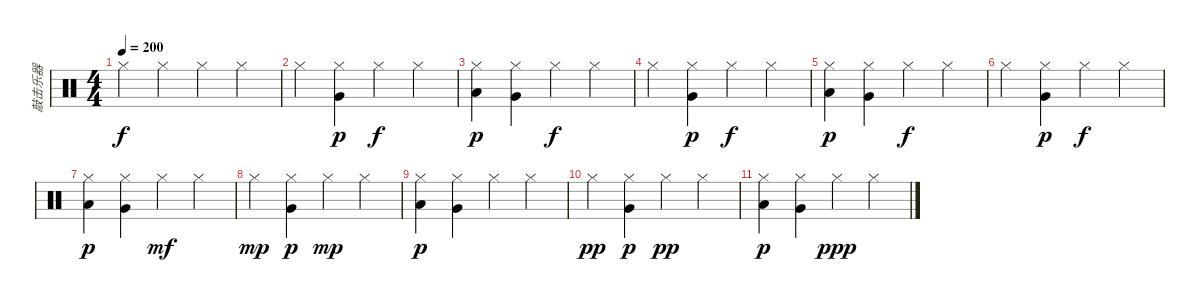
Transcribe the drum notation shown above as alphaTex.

\track ("敲击乐器" "敲击乐器") {instrument percussion}
\staff {score}
\articulation defaults
\ts (4 4)
\tempo 200
\clef neutral
\ks c "Hi-Hat (closed)".4{dy f} "Hi-Hat (closed)".4 "Hi-Hat (closed)".4 "Hi-Hat (closed)".4
|
"Hi-Hat (closed)".4 ("Hi-Hat (closed)" "Very Low Tom (hit)").4{dy p} "Hi-Hat (closed)".4{dy f} "Hi-Hat (closed)".4 |
("Hi-Hat (closed)" "Low Tom (hit)").4{dy p} ("Hi-Hat (closed)" "Very Low Tom (hit)").4 "Hi-Hat (closed)".4{dy f} "Hi-Hat (closed)".4 |
"Hi-Hat (closed)".4 ("Hi-Hat (closed)" "Very Low Tom (hit)").4{dy p} "Hi-Hat (closed)".4{dy f} "Hi-Hat (closed)".4 |
("Hi-Hat (closed)" "Low Tom (hit)").4{dy p} ("Hi-Hat (closed)" "Very Low Tom (hit)").4 "Hi-Hat (closed)".4{dy f} "Hi-Hat (closed)".4 |
"Hi-Hat (closed)".4 ("Hi-Hat (closed)" "Very Low Tom (hit)").4{dy p} "Hi-Hat (closed)".4{dy f} "Hi-Hat (closed)".4 |
("Hi-Hat (closed)" "Low Tom (hit)").4{dy p} ("Hi-Hat (closed)" "Very Low Tom (hit)").4 "Hi-Hat (closed)".4{dy mf} "Hi-Hat (closed)".4 |
"Hi-Hat (closed)".4{dy mp} ("Hi-Hat (closed)" "Very Low Tom (hit)").4{dy p} "Hi-Hat (closed)".4{dy mp} "Hi-Hat (closed)".4 |
("Hi-Hat (closed)" "Low Tom (hit)").4{dy p} ("Hi-Hat (closed)" "Very Low Tom (hit)").4 "Hi-Hat (closed)".4 "Hi-Hat (closed)".4 |
"Hi-Hat (closed)".4{dy pp} ("Hi-Hat (closed)" "Very Low Tom (hit)").4{dy p} "Hi-Hat (closed)".4{dy pp} "Hi-Hat (closed)".4 |
("Hi-Hat (closed)" "Low Tom (hit)").4{dy p} ("Hi-Hat (closed)" "Very Low Tom (hit)").4 "Hi-Hat (closed)".4{dy ppp} "Hi-Hat (closed)".4
